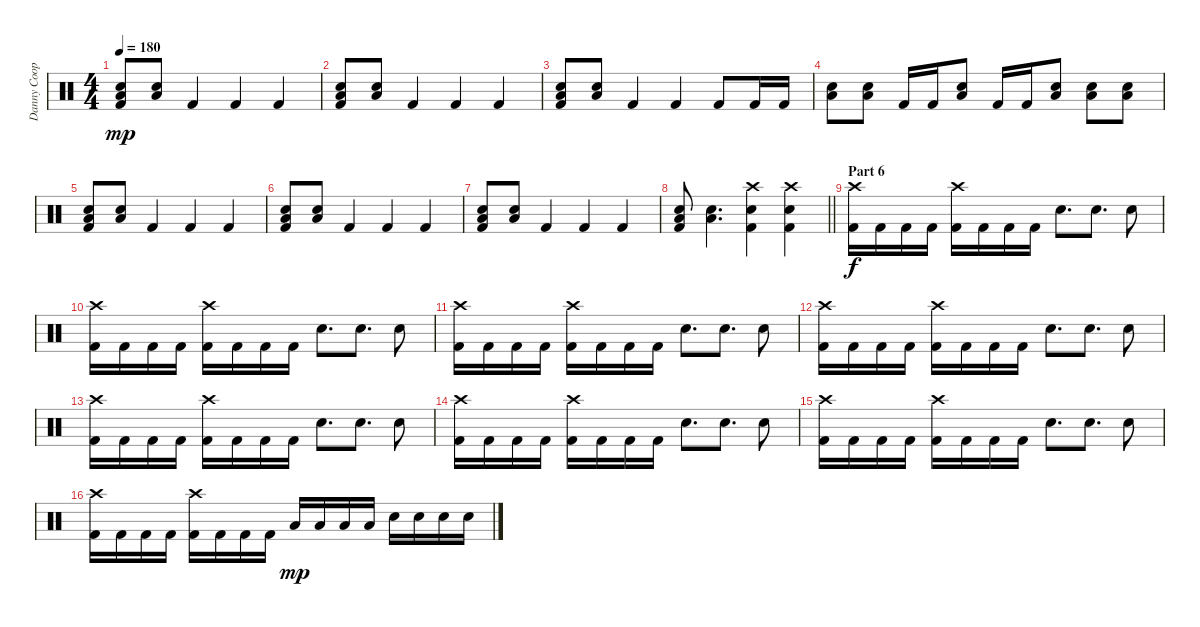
\track ("Danny Cooper" "Danny Coop") {instrument percussion}
\staff {score}
\articulation defaults
\ts (4 4)
\tempo 180
\clef neutral
\ks c
("Snare (hit) 2" "Low Tom (hit)" "Kick (hit) 2").8{dy mp} ("Snare (hit) 2" "Low Tom (hit)").8 "Kick (hit) 2".4 "Kick (hit) 2".4 "Kick (hit) 2".4 |
("Snare (hit) 2" "Low Tom (hit)" "Kick (hit) 2").8 ("Snare (hit) 2" "Low Tom (hit)").8 "Kick (hit) 2".4 "Kick (hit) 2".4 "Kick (hit) 2".4 |
("Snare (hit) 2" "Low Tom (hit)" "Kick (hit) 2").8 ("Snare (hit) 2" "Low Tom (hit)").8 "Kick (hit) 2".4 "Kick (hit) 2".4 "Kick (hit) 2".8 "Kick (hit) 2".16 "Kick (hit) 2".16 |
("Snare (hit) 2" "Low Tom (hit)").8 ("Snare (hit) 2" "Low Tom (hit)").8 "Kick (hit) 2".16 "Kick (hit) 2".16 ("Snare (hit) 2" "Low Tom (hit)").8 "Kick (hit) 2".16 "Kick (hit) 2".16 ("Snare (hit) 2" "Low Tom (hit)").8 ("Snare (hit) 2" "Low Tom (hit)").8 ("Snare (hit) 2" "Low Tom (hit)").8 |
("Snare (hit) 2" "Low Tom (hit)" "Kick (hit) 2").8 ("Snare (hit) 2" "Low Tom (hit)").8 "Kick (hit) 2".4 "Kick (hit) 2".4 "Kick (hit) 2".4 |
("Snare (hit) 2" "Low Tom (hit)" "Kick (hit) 2").8 ("Snare (hit) 2" "Low Tom (hit)").8 "Kick (hit) 2".4 "Kick (hit) 2".4 "Kick (hit) 2".4 |
("Snare (hit) 2" "Low Tom (hit)" "Kick (hit) 2").8 ("Snare (hit) 2" "Low Tom (hit)").8 "Kick (hit) 2".4 "Kick (hit) 2".4 "Kick (hit) 2".4 |
\barLineRight lightlight
("Snare (hit) 2" "Low Tom (hit)" "Kick (hit) 2").8 ("Snare (hit) 2" "Low Tom (hit)").4{d} ("Crash high (hit)" "Snare (hit) 2" "Kick (hit) 2").4 ("Crash high (hit)" "Snare (hit) 2" "Kick (hit) 2").4 |
\section ("" "Part 6")
("Crash high (hit)" "Kick (hit) 2").16{dy f} "Kick (hit) 2".16 "Kick (hit) 2".16 "Kick (hit) 2".16 ("Crash high (hit)" "Kick (hit) 2").16 "Kick (hit) 2".16 "Kick (hit) 2".16 "Kick (hit) 2".16 "Snare (hit) 2".8{d} "Snare (hit) 2".8{d} "Snare (hit) 2".8 |
("Crash high (hit)" "Kick (hit) 2").16 "Kick (hit) 2".16 "Kick (hit) 2".16 "Kick (hit) 2".16 ("Crash high (hit)" "Kick (hit) 2").16 "Kick (hit) 2".16 "Kick (hit) 2".16 "Kick (hit) 2".16 "Snare (hit) 2".8{d} "Snare (hit) 2".8{d} "Snare (hit) 2".8 |
("Crash high (hit)" "Kick (hit) 2").16 "Kick (hit) 2".16 "Kick (hit) 2".16 "Kick (hit) 2".16 ("Crash high (hit)" "Kick (hit) 2").16 "Kick (hit) 2".16 "Kick (hit) 2".16 "Kick (hit) 2".16 "Snare (hit) 2".8{d} "Snare (hit) 2".8{d} "Snare (hit) 2".8 |
("Crash high (hit)" "Kick (hit) 2").16 "Kick (hit) 2".16 "Kick (hit) 2".16 "Kick (hit) 2".16 ("Crash high (hit)" "Kick (hit) 2").16 "Kick (hit) 2".16 "Kick (hit) 2".16 "Kick (hit) 2".16 "Snare (hit) 2".8{d} "Snare (hit) 2".8{d} "Snare (hit) 2".8 |
("Crash high (hit)" "Kick (hit) 2").16 "Kick (hit) 2".16 "Kick (hit) 2".16 "Kick (hit) 2".16 ("Crash high (hit)" "Kick (hit) 2").16 "Kick (hit) 2".16 "Kick (hit) 2".16 "Kick (hit) 2".16 "Snare (hit) 2".8{d} "Snare (hit) 2".8{d} "Snare (hit) 2".8 |
("Crash high (hit)" "Kick (hit) 2").16 "Kick (hit) 2".16 "Kick (hit) 2".16 "Kick (hit) 2".16 ("Crash high (hit)" "Kick (hit) 2").16 "Kick (hit) 2".16 "Kick (hit) 2".16 "Kick (hit) 2".16 "Snare (hit) 2".8{d} "Snare (hit) 2".8{d} "Snare (hit) 2".8 |
("Crash high (hit)" "Kick (hit) 2").16 "Kick (hit) 2".16 "Kick (hit) 2".16 "Kick (hit) 2".16 ("Crash high (hit)" "Kick (hit) 2").16 "Kick (hit) 2".16 "Kick (hit) 2".16 "Kick (hit) 2".16 "Snare (hit) 2".8{d} "Snare (hit) 2".8{d} "Snare (hit) 2".8 |
("Crash high (hit)" "Kick (hit) 2").16 "Kick (hit) 2".16 "Kick (hit) 2".16 "Kick (hit) 2".16 ("Crash high (hit)" "Kick (hit) 2").16 "Kick (hit) 2".16 "Kick (hit) 2".16 "Kick (hit) 2".16 "Low Tom (hit)".16{dy mp} "Low Tom (hit)".16 "Low Tom (hit)".16 "Low Tom (hit)".16 "Snare (hit) 2".16 "Snare (hit) 2".16 "Snare (hit) 2".16 "Snare (hit) 2".16
